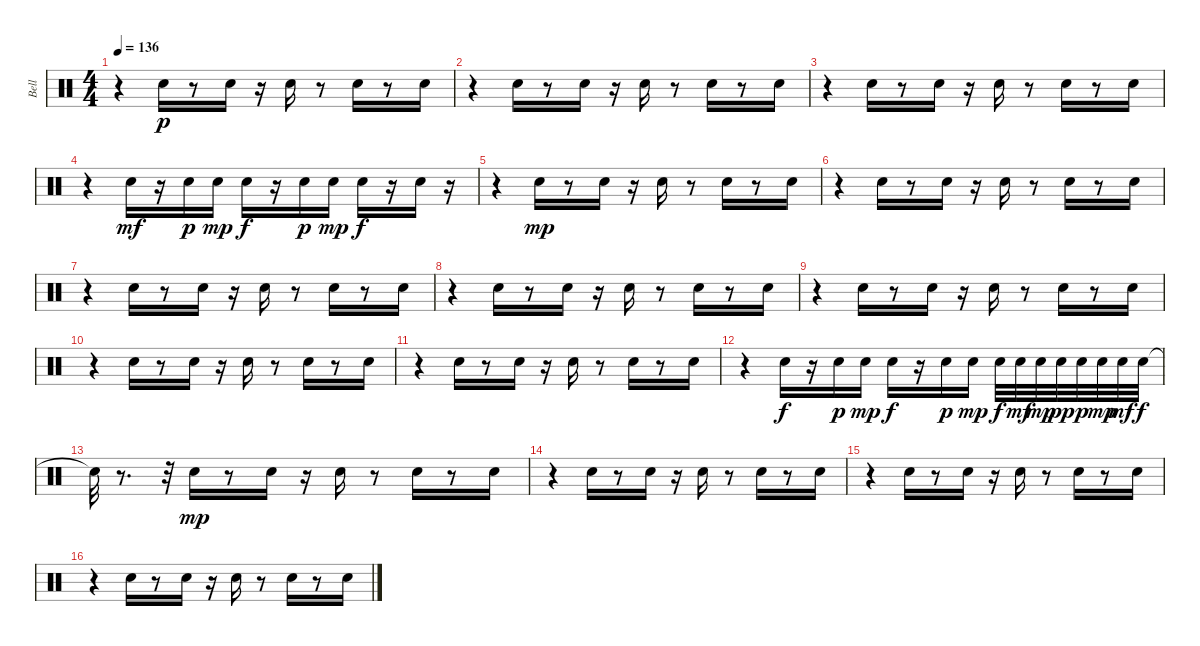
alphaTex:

\track ("Bell" "Bell") {instrument percussion}
\staff {score}
\articulation defaults
\ts (4 4)
\tempo 136
\clef neutral
\ks c
r.4{dy p} "Metronome (bell)".16 r.8 "Metronome (bell)".16 r.16 "Metronome (bell)".16 r.8 "Metronome (bell)".16 r.8 "Metronome (bell)".16 |
r.4 "Metronome (bell)".16 r.8 "Metronome (bell)".16 r.16 "Metronome (bell)".16 r.8 "Metronome (bell)".16 r.8 "Metronome (bell)".16 |
r.4 "Metronome (bell)".16 r.8 "Metronome (bell)".16 r.16 "Metronome (bell)".16 r.8 "Metronome (bell)".16 r.8 "Metronome (bell)".16 |
r.4 "Metronome (bell)".16{dy mf} r.16 "Metronome (bell)".16{dy p} "Metronome (bell)".16{dy mp} "Metronome (bell)".16{dy f} r.16 "Metronome (bell)".16{dy p} "Metronome (bell)".16{dy mp} "Metronome (bell)".16{dy f} r.16 "Metronome (bell)".16 r.16 |
r.4 "Metronome (bell)".16{dy mp} r.8 "Metronome (bell)".16 r.16 "Metronome (bell)".16 r.8 "Metronome (bell)".16 r.8 "Metronome (bell)".16 |
r.4 "Metronome (bell)".16 r.8 "Metronome (bell)".16 r.16 "Metronome (bell)".16 r.8 "Metronome (bell)".16 r.8 "Metronome (bell)".16 |
r.4 "Metronome (bell)".16 r.8 "Metronome (bell)".16 r.16 "Metronome (bell)".16 r.8 "Metronome (bell)".16 r.8 "Metronome (bell)".16 |
r.4 "Metronome (bell)".16 r.8 "Metronome (bell)".16 r.16 "Metronome (bell)".16 r.8 "Metronome (bell)".16 r.8 "Metronome (bell)".16 |
r.4 "Metronome (bell)".16 r.8 "Metronome (bell)".16 r.16 "Metronome (bell)".16 r.8 "Metronome (bell)".16 r.8 "Metronome (bell)".16 |
r.4 "Metronome (bell)".16 r.8 "Metronome (bell)".16 r.16 "Metronome (bell)".16 r.8 "Metronome (bell)".16 r.8 "Metronome (bell)".16 |
r.4 "Metronome (bell)".16 r.8 "Metronome (bell)".16 r.16 "Metronome (bell)".16 r.8 "Metronome (bell)".16 r.8 "Metronome (bell)".16 |
r.4 "Metronome (bell)".16{dy f} r.16 "Metronome (bell)".16{dy p} "Metronome (bell)".16{dy mp} "Metronome (bell)".16{dy f} r.16 "Metronome (bell)".16{dy p} "Metronome (bell)".16{dy mp} "Metronome (bell)".32{dy f} "Metronome (bell)".32{dy mf} "Metronome (bell)".32{dy mp} "Metronome (bell)".32{dy pp} "Metronome (bell)".32{dy p} "Metronome (bell)".32{dy mp} "Metronome (bell)".32{dy mf} "Metronome (bell)".32{dy f} |
"Snare (hit)"{t}.32 r.8{d} r.32 "Metronome (bell)".16{dy mp} r.8 "Metronome (bell)".16 r.16 "Metronome (bell)".16 r.8 "Metronome (bell)".16 r.8 "Metronome (bell)".16 |
r.4 "Metronome (bell)".16 r.8 "Metronome (bell)".16 r.16 "Metronome (bell)".16 r.8 "Metronome (bell)".16 r.8 "Metronome (bell)".16 |
r.4 "Metronome (bell)".16 r.8 "Metronome (bell)".16 r.16 "Metronome (bell)".16 r.8 "Metronome (bell)".16 r.8 "Metronome (bell)".16 |
r.4 "Metronome (bell)".16 r.8 "Metronome (bell)".16 r.16 "Metronome (bell)".16 r.8 "Metronome (bell)".16 r.8 "Metronome (bell)".16
